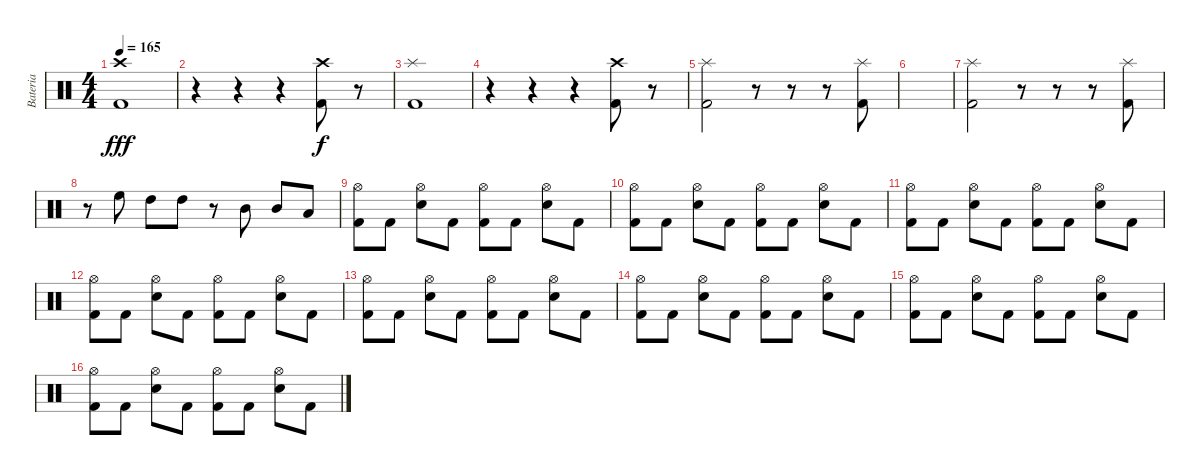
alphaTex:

\track ("Bateria" "Bateria") {instrument percussion}
\staff {score}
\articulation defaults
\ts (4 4)
\tempo 165
\clef neutral
\ks c
("Crash high (hit)" "Kick (hit) 2").1{dy fff} |
r.4 r.4 r.4 ("Crash high (hit)" "Kick (hit) 2").8{dy f} r.8 |
("Splash (hit)" "Kick (hit) 2").1 |
r.4 r.4 r.4 ("Crash high (hit)" "Kick (hit) 2").8 r.8 |
("Splash (hit)" "Kick (hit) 2").2 r.8 r.8 r.8 ("Splash (hit)" "Kick (hit) 2").8 |
|
("Splash (hit)" "Kick (hit) 2").2 r.8 r.8 r.8 ("Splash (hit)" "Kick (hit) 2").8 |
r.8 "High Floor Tom (hit)".8 "High Tom (hit)".8 "High Tom (hit)".8 r.8 "Mid Tom (hit)".8 "Mid Tom (hit)".8 "Low Tom (hit)".8 |
("Hi-Hat (open)" "Kick (hit) 2").8 "Kick (hit) 2".8 ("Hi-Hat (open)" "Snare (hit) 2").8 "Kick (hit) 2".8 ("Hi-Hat (open)" "Kick (hit) 2").8 "Kick (hit) 2".8 ("Hi-Hat (open)" "Snare (hit) 2").8 "Kick (hit) 2".8 |
("Hi-Hat (open)" "Kick (hit) 2").8 "Kick (hit) 2".8 ("Hi-Hat (open)" "Snare (hit) 2").8 "Kick (hit) 2".8 ("Hi-Hat (open)" "Kick (hit) 2").8 "Kick (hit) 2".8 ("Hi-Hat (open)" "Snare (hit) 2").8 "Kick (hit) 2".8 |
("Hi-Hat (open)" "Kick (hit) 2").8 "Kick (hit) 2".8 ("Hi-Hat (open)" "Snare (hit) 2").8 "Kick (hit) 2".8 ("Hi-Hat (open)" "Kick (hit) 2").8 "Kick (hit) 2".8 ("Hi-Hat (open)" "Snare (hit) 2").8 "Kick (hit) 2".8 |
("Hi-Hat (open)" "Kick (hit) 2").8 "Kick (hit) 2".8 ("Hi-Hat (open)" "Snare (hit) 2").8 "Kick (hit) 2".8 ("Hi-Hat (open)" "Kick (hit) 2").8 "Kick (hit) 2".8 ("Hi-Hat (open)" "Snare (hit) 2").8 "Kick (hit) 2".8 |
("Hi-Hat (open)" "Kick (hit) 2").8 "Kick (hit) 2".8 ("Hi-Hat (open)" "Snare (hit) 2").8 "Kick (hit) 2".8 ("Hi-Hat (open)" "Kick (hit) 2").8 "Kick (hit) 2".8 ("Hi-Hat (open)" "Snare (hit) 2").8 "Kick (hit) 2".8 |
("Hi-Hat (open)" "Kick (hit) 2").8 "Kick (hit) 2".8 ("Hi-Hat (open)" "Snare (hit) 2").8 "Kick (hit) 2".8 ("Hi-Hat (open)" "Kick (hit) 2").8 "Kick (hit) 2".8 ("Hi-Hat (open)" "Snare (hit) 2").8 "Kick (hit) 2".8 |
("Hi-Hat (open)" "Kick (hit) 2").8 "Kick (hit) 2".8 ("Hi-Hat (open)" "Snare (hit) 2").8 "Kick (hit) 2".8 ("Hi-Hat (open)" "Kick (hit) 2").8 "Kick (hit) 2".8 ("Hi-Hat (open)" "Snare (hit) 2").8 "Kick (hit) 2".8 |
("Hi-Hat (open)" "Kick (hit) 2").8 "Kick (hit) 2".8 ("Hi-Hat (open)" "Snare (hit) 2").8 "Kick (hit) 2".8 ("Hi-Hat (open)" "Kick (hit) 2").8 "Kick (hit) 2".8 ("Hi-Hat (open)" "Snare (hit) 2").8 "Kick (hit) 2".8
